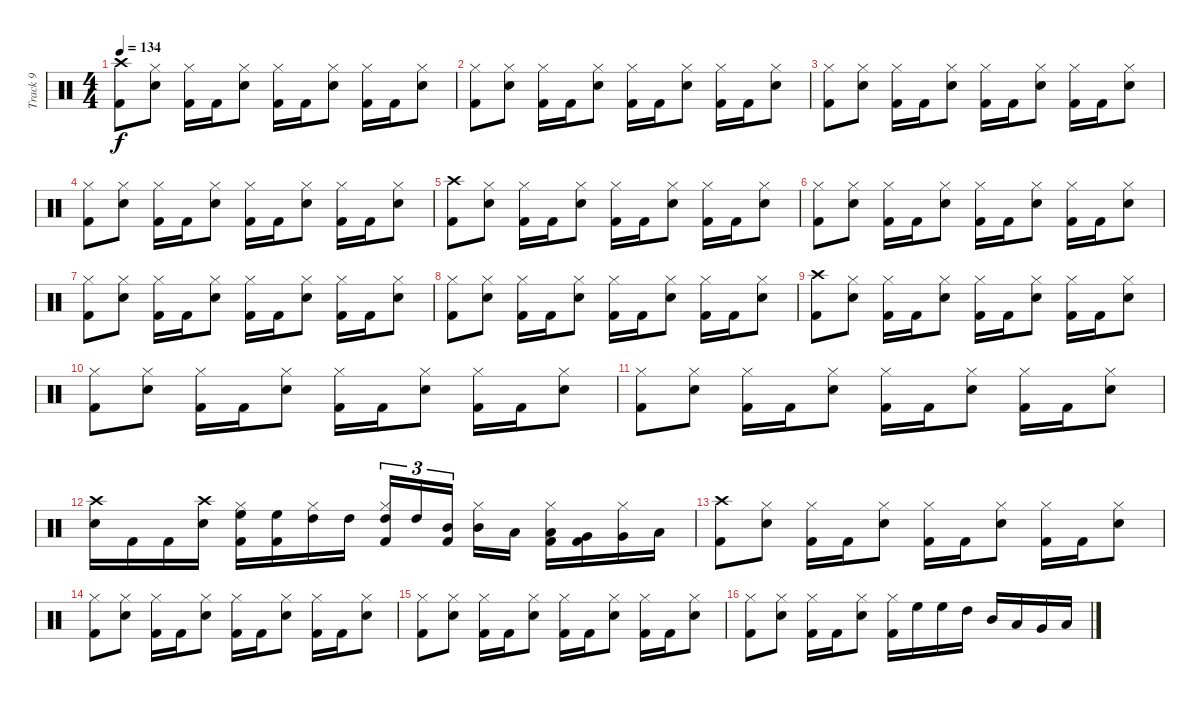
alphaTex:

\track ("Track 9" "Track 9") {instrument percussion}
\staff {score}
\articulation defaults
\ts (4 4)
\tempo 134
\clef neutral
\ks c
("Crash high (hit)" "Kick (hit) 2").8{dy f} ("Hi-Hat (closed)" "Snare (hit) 2").8 ("Hi-Hat (closed)" "Kick (hit) 2").16 "Kick (hit) 2".16 ("Hi-Hat (closed)" "Snare (hit) 2").8 ("Hi-Hat (closed)" "Kick (hit) 2").16 "Kick (hit) 2".16 ("Hi-Hat (closed)" "Snare (hit) 2").8 ("Hi-Hat (closed)" "Kick (hit) 2").16 "Kick (hit) 2".16 ("Hi-Hat (closed)" "Snare (hit) 2").8 |
("Hi-Hat (closed)" "Kick (hit) 2").8 ("Hi-Hat (closed)" "Snare (hit) 2").8 ("Hi-Hat (closed)" "Kick (hit) 2").16 "Kick (hit) 2".16 ("Hi-Hat (closed)" "Snare (hit) 2").8 ("Hi-Hat (closed)" "Kick (hit) 2").16 "Kick (hit) 2".16 ("Hi-Hat (closed)" "Snare (hit) 2").8 ("Hi-Hat (closed)" "Kick (hit) 2").16 "Kick (hit) 2".16 ("Hi-Hat (closed)" "Snare (hit) 2").8 |
("Hi-Hat (closed)" "Kick (hit) 2").8 ("Hi-Hat (closed)" "Snare (hit) 2").8 ("Hi-Hat (closed)" "Kick (hit) 2").16 "Kick (hit) 2".16 ("Hi-Hat (closed)" "Snare (hit) 2").8 ("Hi-Hat (closed)" "Kick (hit) 2").16 "Kick (hit) 2".16 ("Hi-Hat (closed)" "Snare (hit) 2").8 ("Hi-Hat (closed)" "Kick (hit) 2").16 "Kick (hit) 2".16 ("Hi-Hat (closed)" "Snare (hit) 2").8 |
("Hi-Hat (closed)" "Kick (hit) 2").8 ("Hi-Hat (closed)" "Snare (hit) 2").8 ("Hi-Hat (closed)" "Kick (hit) 2").16 "Kick (hit) 2".16 ("Hi-Hat (closed)" "Snare (hit) 2").8 ("Hi-Hat (closed)" "Kick (hit) 2").16 "Kick (hit) 2".16 ("Hi-Hat (closed)" "Snare (hit) 2").8 ("Hi-Hat (closed)" "Kick (hit) 2").16 "Kick (hit) 2".16 ("Hi-Hat (closed)" "Snare (hit) 2").8 |
("Crash high (hit)" "Kick (hit) 2").8 ("Hi-Hat (closed)" "Snare (hit) 2").8 ("Hi-Hat (closed)" "Kick (hit) 2").16 "Kick (hit) 2".16 ("Hi-Hat (closed)" "Snare (hit) 2").8 ("Hi-Hat (closed)" "Kick (hit) 2").16 "Kick (hit) 2".16 ("Hi-Hat (closed)" "Snare (hit) 2").8 ("Hi-Hat (closed)" "Kick (hit) 2").16 "Kick (hit) 2".16 ("Hi-Hat (closed)" "Snare (hit) 2").8 |
("Hi-Hat (closed)" "Kick (hit) 2").8 ("Hi-Hat (closed)" "Snare (hit) 2").8 ("Hi-Hat (closed)" "Kick (hit) 2").16 "Kick (hit) 2".16 ("Hi-Hat (closed)" "Snare (hit) 2").8 ("Hi-Hat (closed)" "Kick (hit) 2").16 "Kick (hit) 2".16 ("Hi-Hat (closed)" "Snare (hit) 2").8 ("Hi-Hat (closed)" "Kick (hit) 2").16 "Kick (hit) 2".16 ("Hi-Hat (closed)" "Snare (hit) 2").8 |
("Hi-Hat (closed)" "Kick (hit) 2").8 ("Hi-Hat (closed)" "Snare (hit) 2").8 ("Hi-Hat (closed)" "Kick (hit) 2").16 "Kick (hit) 2".16 ("Hi-Hat (closed)" "Snare (hit) 2").8 ("Hi-Hat (closed)" "Kick (hit) 2").16 "Kick (hit) 2".16 ("Hi-Hat (closed)" "Snare (hit) 2").8 ("Hi-Hat (closed)" "Kick (hit) 2").16 "Kick (hit) 2".16 ("Hi-Hat (closed)" "Snare (hit) 2").8 |
("Hi-Hat (closed)" "Kick (hit) 2").8 ("Hi-Hat (closed)" "Snare (hit) 2").8 ("Hi-Hat (closed)" "Kick (hit) 2").16 "Kick (hit) 2".16 ("Hi-Hat (closed)" "Snare (hit) 2").8 ("Hi-Hat (closed)" "Kick (hit) 2").16 "Kick (hit) 2".16 ("Hi-Hat (closed)" "Snare (hit) 2").8 ("Hi-Hat (closed)" "Kick (hit) 2").16 "Kick (hit) 2".16 ("Hi-Hat (closed)" "Snare (hit) 2").8 |
("Crash high (hit)" "Kick (hit) 2").8 ("Hi-Hat (closed)" "Snare (hit) 2").8 ("Hi-Hat (closed)" "Kick (hit) 2").16 "Kick (hit) 2".16 ("Hi-Hat (closed)" "Snare (hit) 2").8 ("Hi-Hat (closed)" "Kick (hit) 2").16 "Kick (hit) 2".16 ("Hi-Hat (closed)" "Snare (hit) 2").8 ("Hi-Hat (closed)" "Kick (hit) 2").16 "Kick (hit) 2".16 ("Hi-Hat (closed)" "Snare (hit) 2").8 |
("Hi-Hat (closed)" "Kick (hit) 2").8 ("Hi-Hat (closed)" "Snare (hit) 2").8 ("Hi-Hat (closed)" "Kick (hit) 2").16 "Kick (hit) 2".16 ("Hi-Hat (closed)" "Snare (hit) 2").8 ("Hi-Hat (closed)" "Kick (hit) 2").16 "Kick (hit) 2".16 ("Hi-Hat (closed)" "Snare (hit) 2").8 ("Hi-Hat (closed)" "Kick (hit) 2").16 "Kick (hit) 2".16 ("Hi-Hat (closed)" "Snare (hit) 2").8 |
("Hi-Hat (closed)" "Kick (hit) 2").8 ("Hi-Hat (closed)" "Snare (hit) 2").8 ("Hi-Hat (closed)" "Kick (hit) 2").16 "Kick (hit) 2".16 ("Hi-Hat (closed)" "Snare (hit) 2").8 ("Hi-Hat (closed)" "Kick (hit) 2").16 "Kick (hit) 2".16 ("Hi-Hat (closed)" "Snare (hit) 2").8 ("Hi-Hat (closed)" "Kick (hit) 2").16 "Kick (hit) 2".16 ("Hi-Hat (closed)" "Snare (hit) 2").8 |
("Crash high (hit)" "Snare (hit) 2").16 "Kick (hit) 2".16 "Kick (hit) 2".16 ("Crash high (hit)" "Snare (hit) 2").16 ("Hi-Hat (closed)" "High Floor Tom (hit)" "Kick (hit) 2").16 ("High Floor Tom (hit)" "Kick (hit) 2").16 ("Hi-Hat (closed)" "High Tom (hit)").16 "High Tom (hit)".16 ("Hi-Hat (closed)" "High Tom (hit)" "Kick (hit) 2").16{tu (3 2)} "High Tom (hit)".16{tu (3 2)} ("Mid Tom (hit)" "Kick (hit) 2").16{tu (3 2) beam splitsecondary} ("Hi-Hat (closed)" "Mid Tom (hit)").16 "Low Tom (hit)".16 ("Hi-Hat (closed)" "Low Tom (hit)" "Kick (hit) 2").16 ("Very Low Tom (hit)" "Kick (hit) 2").16 ("Hi-Hat (closed)" "Very Low Tom (hit)").16 "Low Floor Tom (hit)".16 |
("Crash high (hit)" "Kick (hit) 2").8 ("Hi-Hat (closed)" "Snare (hit) 2").8 ("Hi-Hat (closed)" "Kick (hit) 2").16 "Kick (hit) 2".16 ("Hi-Hat (closed)" "Snare (hit) 2").8 ("Hi-Hat (closed)" "Kick (hit) 2").16 "Kick (hit) 2".16 ("Hi-Hat (closed)" "Snare (hit) 2").8 ("Hi-Hat (closed)" "Kick (hit) 2").16 "Kick (hit) 2".16 ("Hi-Hat (closed)" "Snare (hit) 2").8 |
("Hi-Hat (closed)" "Kick (hit) 2").8 ("Hi-Hat (closed)" "Snare (hit) 2").8 ("Hi-Hat (closed)" "Kick (hit) 2").16 "Kick (hit) 2".16 ("Hi-Hat (closed)" "Snare (hit) 2").8 ("Hi-Hat (closed)" "Kick (hit) 2").16 "Kick (hit) 2".16 ("Hi-Hat (closed)" "Snare (hit) 2").8 ("Hi-Hat (closed)" "Kick (hit) 2").16 "Kick (hit) 2".16 ("Hi-Hat (closed)" "Snare (hit) 2").8 |
("Hi-Hat (closed)" "Kick (hit) 2").8 ("Hi-Hat (closed)" "Snare (hit) 2").8 ("Hi-Hat (closed)" "Kick (hit) 2").16 "Kick (hit) 2".16 ("Hi-Hat (closed)" "Snare (hit) 2").8 ("Hi-Hat (closed)" "Kick (hit) 2").16 "Kick (hit) 2".16 ("Hi-Hat (closed)" "Snare (hit) 2").8 ("Hi-Hat (closed)" "Kick (hit) 2").16 "Kick (hit) 2".16 ("Hi-Hat (closed)" "Snare (hit) 2").8 |
("Hi-Hat (closed)" "Kick (hit) 2").8 ("Hi-Hat (closed)" "Snare (hit) 2").8 ("Hi-Hat (closed)" "Kick (hit) 2").16 "Kick (hit) 2".16 ("Hi-Hat (closed)" "Snare (hit) 2").8 ("Hi-Hat (closed)" "Kick (hit) 2").16 "High Floor Tom (hit)".16 "High Floor Tom (hit)".16 "High Tom (hit)".16 "Mid Tom (hit)".16 "Low Tom (hit)".16 "Very Low Tom (hit)".16 "Low Floor Tom (hit)".16
